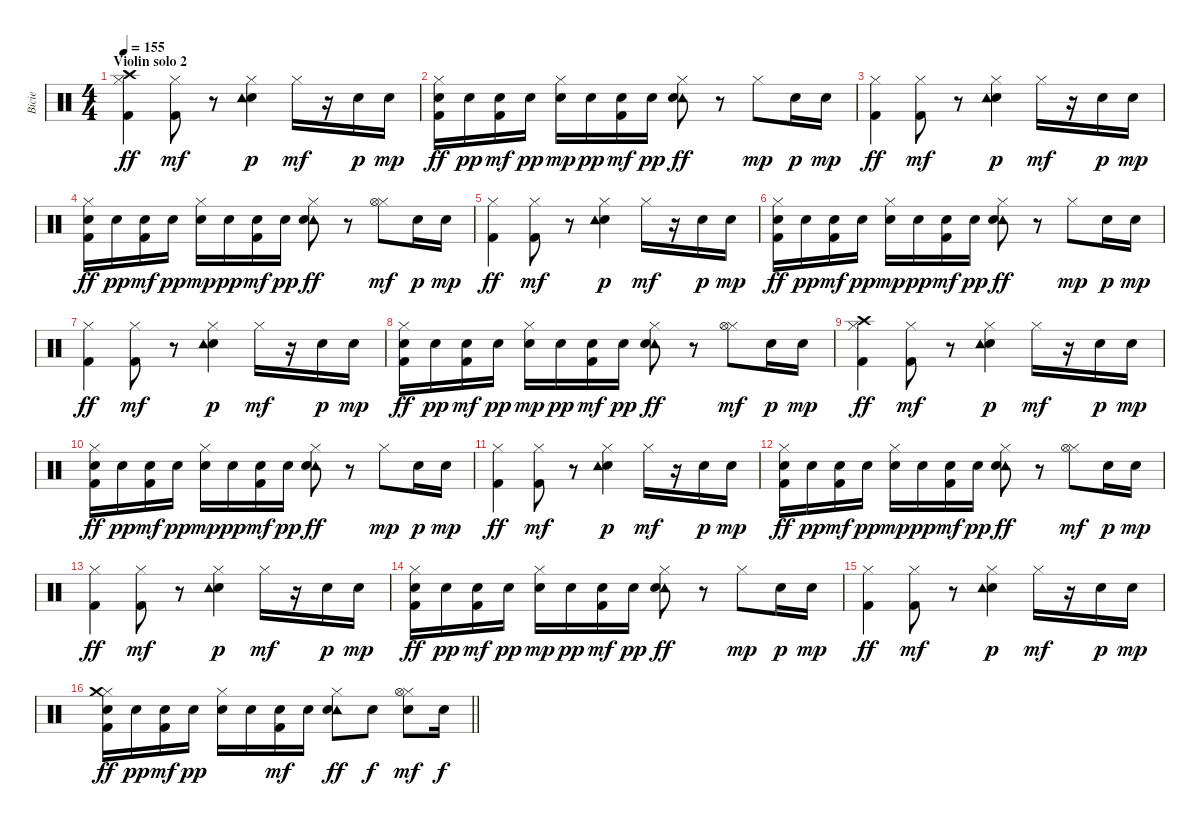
\track ("Bicie" "Bicie") {instrument percussion}
\staff {score}
\articulation defaults
\ts (4 4)
\section ("" "Violin solo 2")
\tempo 155
\clef neutral
\ks c
("Hi-Hat (closed)" "Crash high (hit)" "Kick (hit) 2").4{dy ff} ("Hi-Hat (closed)" "Kick (hit) 2").8{dy mf} r.8 ("Hi-Hat (closed)" "Electric Snare (hit)" "Tambourine (hit)").4{dy p} "Hi-Hat (closed)".16{dy mf} r.16 "Electric Snare (hit)".16{dy p} "Electric Snare (hit)".16{dy mp} |
("Hi-Hat (closed)" "Electric Snare (hit)" "Kick (hit) 2").16{dy ff} "Electric Snare (hit)".16{dy pp} ("Electric Snare (hit)" "Kick (hit) 2").16{dy mf} "Electric Snare (hit)".16{dy pp} ("Hi-Hat (closed)" "Electric Snare (hit)").16{dy mp} "Electric Snare (hit)".16{dy pp} ("Electric Snare (hit)" "Kick (hit) 2").16{dy mf} "Electric Snare (hit)".16{dy pp} ("Hi-Hat (closed)" "Tambourine (hit)" "Electric Snare (hit)").8{dy ff} r.8 "Hi-Hat (closed)".8{dy mp} "Electric Snare (hit)".16{dy p} "Electric Snare (hit)".16{dy mp} |
("Hi-Hat (closed)" "Kick (hit) 2").4{dy ff} ("Hi-Hat (closed)" "Kick (hit) 2").8{dy mf} r.8 ("Hi-Hat (closed)" "Electric Snare (hit)" "Tambourine (hit)").4{dy p} "Hi-Hat (closed)".16{dy mf} r.16 "Electric Snare (hit)".16{dy p} "Electric Snare (hit)".16{dy mp} |
("Hi-Hat (closed)" "Electric Snare (hit)" "Kick (hit) 2").16{dy ff} "Electric Snare (hit)".16{dy pp} ("Electric Snare (hit)" "Kick (hit) 2").16{dy mf} "Electric Snare (hit)".16{dy pp} ("Hi-Hat (closed)" "Electric Snare (hit)").16{dy mp} "Electric Snare (hit)".16{dy pp} ("Electric Snare (hit)" "Kick (hit) 2").16{dy mf} "Electric Snare (hit)".16{dy pp} ("Hi-Hat (closed)" "Tambourine (hit)" "Electric Snare (hit)").8{dy ff} r.8 ("Hi-Hat (closed)" "Hi-Hat (open)").8{dy mf} "Electric Snare (hit)".16{dy p} "Electric Snare (hit)".16{dy mp} |
("Hi-Hat (closed)" "Kick (hit) 2").4{dy ff} ("Hi-Hat (closed)" "Kick (hit) 2").8{dy mf} r.8 ("Hi-Hat (closed)" "Electric Snare (hit)" "Tambourine (hit)").4{dy p} "Hi-Hat (closed)".16{dy mf} r.16 "Electric Snare (hit)".16{dy p} "Electric Snare (hit)".16{dy mp} |
("Hi-Hat (closed)" "Electric Snare (hit)" "Kick (hit) 2").16{dy ff} "Electric Snare (hit)".16{dy pp} ("Electric Snare (hit)" "Kick (hit) 2").16{dy mf} "Electric Snare (hit)".16{dy pp} ("Hi-Hat (closed)" "Electric Snare (hit)").16{dy mp} "Electric Snare (hit)".16{dy pp} ("Electric Snare (hit)" "Kick (hit) 2").16{dy mf} "Electric Snare (hit)".16{dy pp} ("Hi-Hat (closed)" "Tambourine (hit)" "Electric Snare (hit)").8{dy ff} r.8 "Hi-Hat (closed)".8{dy mp} "Electric Snare (hit)".16{dy p} "Electric Snare (hit)".16{dy mp} |
("Hi-Hat (closed)" "Kick (hit) 2").4{dy ff} ("Hi-Hat (closed)" "Kick (hit) 2").8{dy mf} r.8 ("Hi-Hat (closed)" "Electric Snare (hit)" "Tambourine (hit)").4{dy p} "Hi-Hat (closed)".16{dy mf} r.16 "Electric Snare (hit)".16{dy p} "Electric Snare (hit)".16{dy mp} |
("Hi-Hat (closed)" "Electric Snare (hit)" "Kick (hit) 2").16{dy ff} "Electric Snare (hit)".16{dy pp} ("Electric Snare (hit)" "Kick (hit) 2").16{dy mf} "Electric Snare (hit)".16{dy pp} ("Hi-Hat (closed)" "Electric Snare (hit)").16{dy mp} "Electric Snare (hit)".16{dy pp} ("Electric Snare (hit)" "Kick (hit) 2").16{dy mf} "Electric Snare (hit)".16{dy pp} ("Hi-Hat (closed)" "Tambourine (hit)" "Electric Snare (hit)").8{dy ff} r.8 ("Hi-Hat (closed)" "Hi-Hat (open)").8{dy mf} "Electric Snare (hit)".16{dy p} "Electric Snare (hit)".16{dy mp} |
("Hi-Hat (closed)" "Crash high (hit)" "Kick (hit) 2").4{dy ff} ("Hi-Hat (closed)" "Kick (hit) 2").8{dy mf} r.8 ("Hi-Hat (closed)" "Electric Snare (hit)" "Tambourine (hit)").4{dy p} "Hi-Hat (closed)".16{dy mf} r.16 "Electric Snare (hit)".16{dy p} "Electric Snare (hit)".16{dy mp} |
("Hi-Hat (closed)" "Electric Snare (hit)" "Kick (hit) 2").16{dy ff} "Electric Snare (hit)".16{dy pp} ("Electric Snare (hit)" "Kick (hit) 2").16{dy mf} "Electric Snare (hit)".16{dy pp} ("Hi-Hat (closed)" "Electric Snare (hit)").16{dy mp} "Electric Snare (hit)".16{dy pp} ("Electric Snare (hit)" "Kick (hit) 2").16{dy mf} "Electric Snare (hit)".16{dy pp} ("Hi-Hat (closed)" "Tambourine (hit)" "Electric Snare (hit)").8{dy ff} r.8 "Hi-Hat (closed)".8{dy mp} "Electric Snare (hit)".16{dy p} "Electric Snare (hit)".16{dy mp} |
("Hi-Hat (closed)" "Kick (hit) 2").4{dy ff} ("Hi-Hat (closed)" "Kick (hit) 2").8{dy mf} r.8 ("Hi-Hat (closed)" "Electric Snare (hit)" "Tambourine (hit)").4{dy p} "Hi-Hat (closed)".16{dy mf} r.16 "Electric Snare (hit)".16{dy p} "Electric Snare (hit)".16{dy mp} |
("Hi-Hat (closed)" "Electric Snare (hit)" "Kick (hit) 2").16{dy ff} "Electric Snare (hit)".16{dy pp} ("Electric Snare (hit)" "Kick (hit) 2").16{dy mf} "Electric Snare (hit)".16{dy pp} ("Hi-Hat (closed)" "Electric Snare (hit)").16{dy mp} "Electric Snare (hit)".16{dy pp} ("Electric Snare (hit)" "Kick (hit) 2").16{dy mf} "Electric Snare (hit)".16{dy pp} ("Hi-Hat (closed)" "Tambourine (hit)" "Electric Snare (hit)").8{dy ff} r.8 ("Hi-Hat (closed)" "Hi-Hat (open)").8{dy mf} "Electric Snare (hit)".16{dy p} "Electric Snare (hit)".16{dy mp} |
("Hi-Hat (closed)" "Kick (hit) 2").4{dy ff} ("Hi-Hat (closed)" "Kick (hit) 2").8{dy mf} r.8 ("Hi-Hat (closed)" "Electric Snare (hit)" "Tambourine (hit)").4{dy p} "Hi-Hat (closed)".16{dy mf} r.16 "Electric Snare (hit)".16{dy p} "Electric Snare (hit)".16{dy mp} |
("Hi-Hat (closed)" "Electric Snare (hit)" "Kick (hit) 2").16{dy ff} "Electric Snare (hit)".16{dy pp} ("Electric Snare (hit)" "Kick (hit) 2").16{dy mf} "Electric Snare (hit)".16{dy pp} ("Hi-Hat (closed)" "Electric Snare (hit)").16{dy mp} "Electric Snare (hit)".16{dy pp} ("Electric Snare (hit)" "Kick (hit) 2").16{dy mf} "Electric Snare (hit)".16{dy pp} ("Hi-Hat (closed)" "Tambourine (hit)" "Electric Snare (hit)").8{dy ff} r.8 "Hi-Hat (closed)".8{dy mp} "Electric Snare (hit)".16{dy p} "Electric Snare (hit)".16{dy mp} |
("Hi-Hat (closed)" "Kick (hit) 2").4{dy ff} ("Hi-Hat (closed)" "Kick (hit) 2").8{dy mf} r.8 ("Hi-Hat (closed)" "Electric Snare (hit)" "Tambourine (hit)").4{dy p} "Hi-Hat (closed)".16{dy mf} r.16 "Electric Snare (hit)".16{dy p} "Electric Snare (hit)".16{dy mp} |
\barLineRight lightlight
("Hi-Hat (closed)" "Electric Snare (hit)" "Crash medium (hit)" "Kick (hit) 2").16{dy ff} "Electric Snare (hit)".16{dy pp} ("Electric Snare (hit)" "Kick (hit) 2").16{dy mf} "Electric Snare (hit)".16{dy pp} ("Hi-Hat (closed)" "Electric Snare (hit)").16 "Electric Snare (hit)".16 ("Electric Snare (hit)" "Kick (hit) 2").16{dy mf} "Electric Snare (hit)".16 ("Hi-Hat (closed)" "Tambourine (hit)" "Electric Snare (hit)").8{dy ff} "Electric Snare (hit)".8{dy f} ("Hi-Hat (closed)" "Electric Snare (hit)" "Hi-Hat (open)").8{dy mf} "Electric Snare (hit)".16{dy f}
